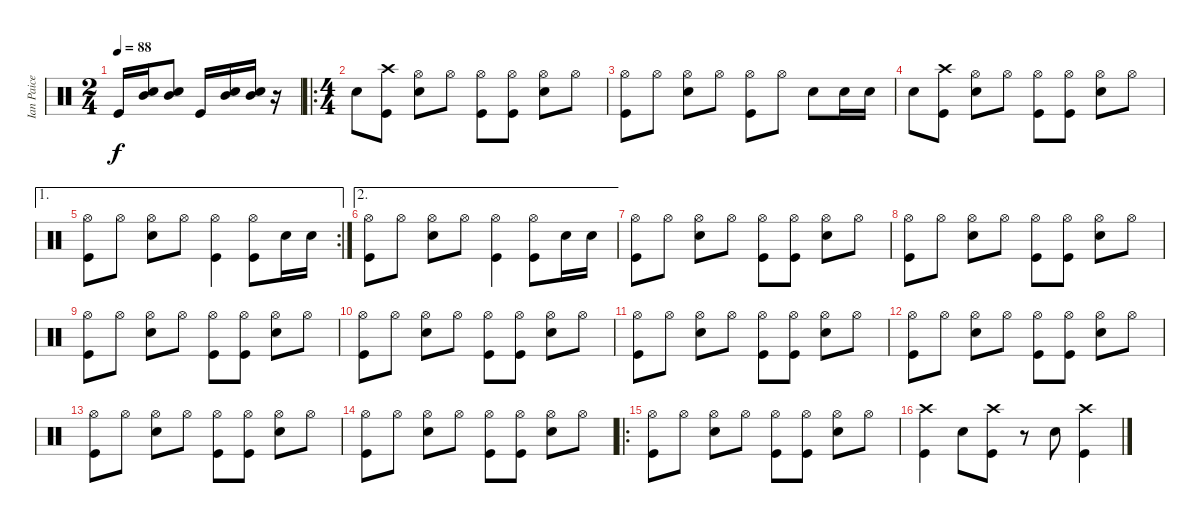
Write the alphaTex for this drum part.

\track ("Ian Paice" "Ian Paice") {instrument percussion}
\staff {score}
\articulation defaults
\ts (2 4)
\tempo 88
\clef neutral
\ks c "Kick (hit)".16{dy f}
("Mid Tom (hit)" "Snare (hit) 2").16 ("Mid Tom (hit)" "Snare (hit) 2").8 "Kick (hit)".16 ("Mid Tom (hit)" "Snare (hit) 2").16 ("Mid Tom (hit)" "Snare (hit) 2").16 r.16 |
\ro
\ts (4 4)
"Snare (hit) 2".8 ("Crash high (hit)" "Kick (hit)").8 ("Hi-Hat (open)" "Snare (hit) 2").8 "Hi-Hat (open)".8 ("Hi-Hat (open)" "Kick (hit)").8 ("Hi-Hat (open)" "Kick (hit)").8 ("Hi-Hat (open)" "Snare (hit) 2").8 "Hi-Hat (open)".8 |
("Hi-Hat (open)" "Kick (hit)").8 "Hi-Hat (open)".8 ("Hi-Hat (open)" "Snare (hit) 2").8 "Hi-Hat (open)".8 ("Hi-Hat (open)" "Kick (hit)").8 "Hi-Hat (open)".8 "Snare (hit) 2".8 "Snare (hit) 2".16 "Snare (hit) 2".16 |
"Snare (hit) 2".8 ("Crash high (hit)" "Kick (hit)").8 ("Hi-Hat (open)" "Snare (hit) 2").8 "Hi-Hat (open)".8 ("Hi-Hat (open)" "Kick (hit)").8 ("Hi-Hat (open)" "Kick (hit)").8 ("Hi-Hat (open)" "Snare (hit) 2").8 "Hi-Hat (open)".8 |
\ae 1
\rc 2
("Hi-Hat (open)" "Kick (hit)").8 "Hi-Hat (open)".8 ("Hi-Hat (open)" "Snare (hit) 2").8 "Hi-Hat (open)".8 ("Hi-Hat (open)" "Kick (hit)").4 ("Hi-Hat (open)" "Kick (hit)").8 "Snare (hit) 2".16 "Snare (hit) 2".16 |
\ae 2
("Hi-Hat (open)" "Kick (hit)").8 "Hi-Hat (open)".8 ("Hi-Hat (open)" "Snare (hit) 2").8 "Hi-Hat (open)".8 ("Hi-Hat (open)" "Kick (hit)").4 ("Hi-Hat (open)" "Kick (hit)").8 "Snare (hit) 2".16 "Snare (hit) 2".16 |
("Hi-Hat (open)" "Kick (hit)").8 "Hi-Hat (open)".8 ("Hi-Hat (open)" "Snare (hit) 2").8 "Hi-Hat (open)".8 ("Hi-Hat (open)" "Kick (hit)").8 ("Hi-Hat (open)" "Kick (hit)").8 ("Hi-Hat (open)" "Snare (hit) 2").8 "Hi-Hat (open)".8 |
("Hi-Hat (open)" "Kick (hit)").8 "Hi-Hat (open)".8 ("Hi-Hat (open)" "Snare (hit) 2").8 "Hi-Hat (open)".8 ("Hi-Hat (open)" "Kick (hit)").8 ("Hi-Hat (open)" "Kick (hit)").8 ("Hi-Hat (open)" "Snare (hit) 2").8 "Hi-Hat (open)".8 |
("Hi-Hat (open)" "Kick (hit)").8 "Hi-Hat (open)".8 ("Hi-Hat (open)" "Snare (hit) 2").8 "Hi-Hat (open)".8 ("Hi-Hat (open)" "Kick (hit)").8 ("Hi-Hat (open)" "Kick (hit)").8 ("Hi-Hat (open)" "Snare (hit) 2").8 "Hi-Hat (open)".8 |
("Hi-Hat (open)" "Kick (hit)").8 "Hi-Hat (open)".8 ("Hi-Hat (open)" "Snare (hit) 2").8 "Hi-Hat (open)".8 ("Hi-Hat (open)" "Kick (hit)").8 ("Hi-Hat (open)" "Kick (hit)").8 ("Hi-Hat (open)" "Snare (hit) 2").8 "Hi-Hat (open)".8 |
("Hi-Hat (open)" "Kick (hit)").8 "Hi-Hat (open)".8 ("Hi-Hat (open)" "Snare (hit) 2").8 "Hi-Hat (open)".8 ("Hi-Hat (open)" "Kick (hit)").8 ("Hi-Hat (open)" "Kick (hit)").8 ("Hi-Hat (open)" "Snare (hit) 2").8 "Hi-Hat (open)".8 |
("Hi-Hat (open)" "Kick (hit)").8 "Hi-Hat (open)".8 ("Hi-Hat (open)" "Snare (hit) 2").8 "Hi-Hat (open)".8 ("Hi-Hat (open)" "Kick (hit)").8 ("Hi-Hat (open)" "Kick (hit)").8 ("Hi-Hat (open)" "Snare (hit) 2").8 "Hi-Hat (open)".8 |
("Hi-Hat (open)" "Kick (hit)").8 "Hi-Hat (open)".8 ("Hi-Hat (open)" "Snare (hit) 2").8 "Hi-Hat (open)".8 ("Hi-Hat (open)" "Kick (hit)").8 ("Hi-Hat (open)" "Kick (hit)").8 ("Hi-Hat (open)" "Snare (hit) 2").8 "Hi-Hat (open)".8 |
("Hi-Hat (open)" "Kick (hit)").8 "Hi-Hat (open)".8 ("Hi-Hat (open)" "Snare (hit) 2").8 "Hi-Hat (open)".8 ("Hi-Hat (open)" "Kick (hit)").8 ("Hi-Hat (open)" "Kick (hit)").8 ("Hi-Hat (open)" "Snare (hit) 2").8 "Hi-Hat (open)".8 |
\ro
("Hi-Hat (open)" "Kick (hit)").8 "Hi-Hat (open)".8 ("Hi-Hat (open)" "Snare (hit) 2").8 "Hi-Hat (open)".8 ("Hi-Hat (open)" "Kick (hit)").8 ("Hi-Hat (open)" "Kick (hit)").8 ("Hi-Hat (open)" "Snare (hit) 2").8 "Hi-Hat (open)".8 |
("Crash high (hit)" "Kick (hit)").4 "Snare (hit) 2".8 ("Crash high (hit)" "Kick (hit)").8 r.8 "Snare (hit) 2".8 ("Crash high (hit)" "Kick (hit)").4
